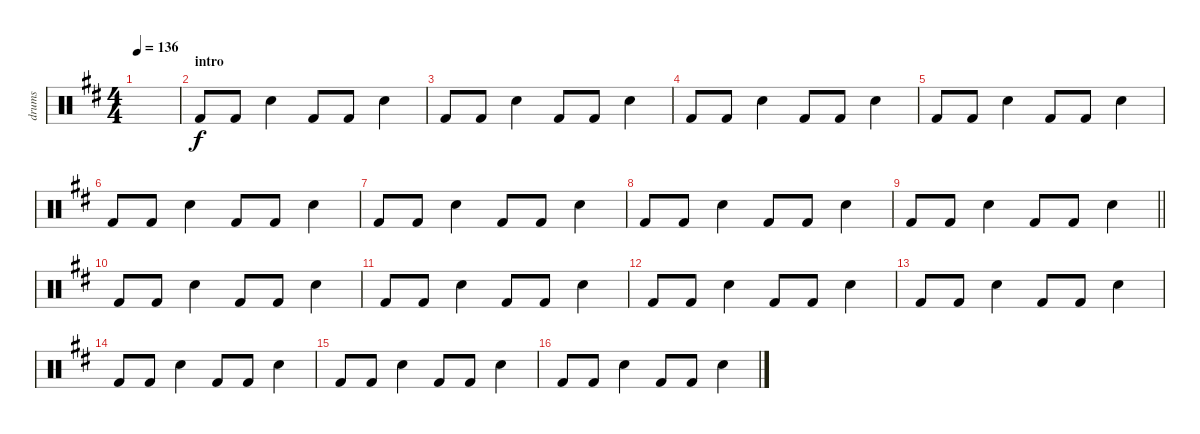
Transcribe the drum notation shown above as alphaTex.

\track ("drums" "drums") {instrument percussion}
\staff {score}
\articulation defaults
\ts (4 4)
\tempo 136
\clef neutral
\ks d
|
\section ("" "intro")
"Kick (hit) 2".8 "Kick (hit) 2".8 "Electric Snare (hit)".4 "Kick (hit) 2".8 "Kick (hit) 2".8 "Electric Snare (hit)".4 |
"Kick (hit) 2".8 "Kick (hit) 2".8 "Electric Snare (hit)".4 "Kick (hit) 2".8 "Kick (hit) 2".8 "Electric Snare (hit)".4 |
"Kick (hit) 2".8 "Kick (hit) 2".8 "Electric Snare (hit)".4 "Kick (hit) 2".8 "Kick (hit) 2".8 "Electric Snare (hit)".4 |
"Kick (hit) 2".8 "Kick (hit) 2".8 "Electric Snare (hit)".4 "Kick (hit) 2".8 "Kick (hit) 2".8 "Electric Snare (hit)".4 |
"Kick (hit) 2".8 "Kick (hit) 2".8 "Electric Snare (hit)".4 "Kick (hit) 2".8 "Kick (hit) 2".8 "Electric Snare (hit)".4 |
"Kick (hit) 2".8 "Kick (hit) 2".8 "Electric Snare (hit)".4 "Kick (hit) 2".8 "Kick (hit) 2".8 "Electric Snare (hit)".4 |
"Kick (hit) 2".8 "Kick (hit) 2".8 "Electric Snare (hit)".4 "Kick (hit) 2".8 "Kick (hit) 2".8 "Electric Snare (hit)".4 |
\barLineRight lightlight "Kick (hit) 2".8 "Kick (hit) 2".8 "Electric Snare (hit)".4 "Kick (hit) 2".8 "Kick (hit) 2".8 "Electric Snare (hit)".4
|
"Kick (hit) 2".8 "Kick (hit) 2".8 "Electric Snare (hit)".4 "Kick (hit) 2".8 "Kick (hit) 2".8 "Electric Snare (hit)".4 |
"Kick (hit) 2".8 "Kick (hit) 2".8 "Electric Snare (hit)".4 "Kick (hit) 2".8 "Kick (hit) 2".8 "Electric Snare (hit)".4 |
"Kick (hit) 2".8 "Kick (hit) 2".8 "Electric Snare (hit)".4 "Kick (hit) 2".8 "Kick (hit) 2".8 "Electric Snare (hit)".4 |
"Kick (hit) 2".8 "Kick (hit) 2".8 "Electric Snare (hit)".4 "Kick (hit) 2".8 "Kick (hit) 2".8 "Electric Snare (hit)".4 |
"Kick (hit) 2".8 "Kick (hit) 2".8 "Electric Snare (hit)".4 "Kick (hit) 2".8 "Kick (hit) 2".8 "Electric Snare (hit)".4 |
"Kick (hit) 2".8 "Kick (hit) 2".8 "Electric Snare (hit)".4 "Kick (hit) 2".8 "Kick (hit) 2".8 "Electric Snare (hit)".4 |
"Kick (hit) 2".8 "Kick (hit) 2".8 "Electric Snare (hit)".4 "Kick (hit) 2".8 "Kick (hit) 2".8 "Electric Snare (hit)".4
